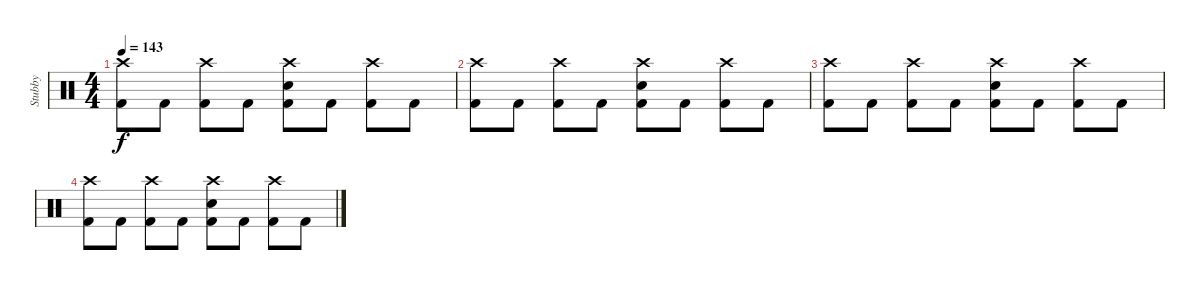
\track ("Stubby" "Stubby") {instrument percussion}
\staff {score}
\articulation defaults
\ts (4 4)
\tempo 143
\clef neutral
\ks c
("Crash high (hit)" "Kick (hit) 2").8{dy f} "Kick (hit) 2".8 ("Crash high (hit)" "Kick (hit) 2").8 "Kick (hit) 2".8 ("Crash high (hit)" "Electric Snare (hit)" "Kick (hit) 2").8 "Kick (hit) 2".8 ("Crash high (hit)" "Kick (hit) 2").8 "Kick (hit) 2".8 |
("Crash high (hit)" "Kick (hit) 2").8 "Kick (hit) 2".8 ("Crash high (hit)" "Kick (hit) 2").8 "Kick (hit) 2".8 ("Crash high (hit)" "Electric Snare (hit)" "Kick (hit) 2").8 "Kick (hit) 2".8 ("Crash high (hit)" "Kick (hit) 2").8 "Kick (hit) 2".8 |
("Crash high (hit)" "Kick (hit) 2").8 "Kick (hit) 2".8 ("Crash high (hit)" "Kick (hit) 2").8 "Kick (hit) 2".8 ("Crash high (hit)" "Electric Snare (hit)" "Kick (hit) 2").8 "Kick (hit) 2".8 ("Crash high (hit)" "Kick (hit) 2").8 "Kick (hit) 2".8 |
("Crash high (hit)" "Kick (hit) 2").8 "Kick (hit) 2".8 ("Crash high (hit)" "Kick (hit) 2").8 "Kick (hit) 2".8 ("Crash high (hit)" "Electric Snare (hit)" "Kick (hit) 2").8 "Kick (hit) 2".8 ("Crash high (hit)" "Kick (hit) 2").8 "Kick (hit) 2".8
